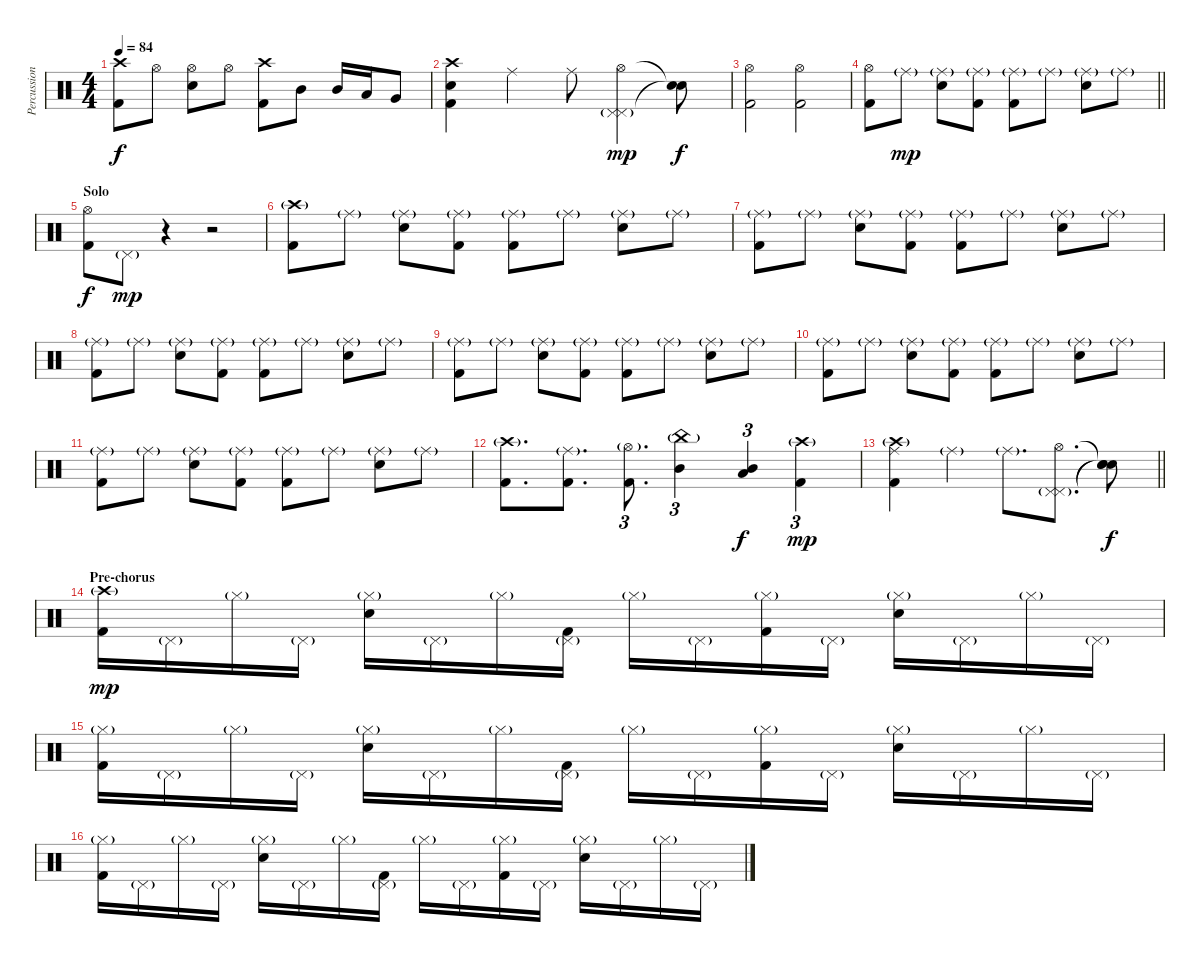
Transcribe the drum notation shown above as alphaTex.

\track ("Percussion" "Percussion") {instrument percussion}
\staff {score}
\articulation defaults
\ts (4 4)
\tempo 84
\clef neutral
\ks c
("Crash high (hit)" "Kick (hit) 2").8{dy f} "Hi-Hat (open)".8 ("Hi-Hat (open)" "Electric Snare (hit)").8 "Hi-Hat (open)".8 ("Crash high (hit)" "Kick (hit) 2").8 "Mid Tom (hit)".8 "Mid Tom (hit)".16 "Low Tom (hit)".16 "Very Low Tom (hit)".8 |
("Crash high (hit)" "Electric Snare (hit)" "Kick (hit) 2").4 "Ride (middle)".4 "Ride (middle)".8 ("Hi-Hat (open)" "Pedal Hi-Hat (hit)" "Pedal Hi-Hat (hit)"{g}).4{bd 480 dy mp} ("Snare (hit)"{t} "Snare (hit)"{t}).8{dy f} |
("Hi-Hat (open)" "Kick (hit) 2").2 ("Hi-Hat (open)" "Kick (hit) 2").2 |
\barLineRight lightlight
("Hi-Hat (open)" "Kick (hit) 2").8 "Ride (middle)"{g}.8{dy mp} ("Ride (middle)"{g} "Electric Snare (hit)").8 ("Ride (middle)"{g} "Kick (hit) 2").8 ("Ride (middle)"{g} "Kick (hit) 2").8 "Ride (middle)"{g}.8 ("Ride (middle)"{g} "Electric Snare (hit)").8 "Ride (middle)"{g}.8 |
\section ("" "Solo")
("Hi-Hat (open)" "Kick (hit) 2").8{dy f} "Pedal Hi-Hat (hit)"{g}.8{dy mp} r.4 r.2 |
("Crash high (hit)"{g} "Kick (hit) 2").8 "Ride (middle)"{g}.8 ("Ride (middle)"{g} "Electric Snare (hit)").8 ("Ride (middle)"{g} "Kick (hit) 2").8 ("Ride (middle)"{g} "Kick (hit) 2").8 "Ride (middle)"{g}.8 ("Ride (middle)"{g} "Electric Snare (hit)").8 "Ride (middle)"{g}.8 |
("Ride (middle)"{g} "Kick (hit) 2").8 "Ride (middle)"{g}.8 ("Ride (middle)"{g} "Electric Snare (hit)").8 ("Ride (middle)"{g} "Kick (hit) 2").8 ("Ride (middle)"{g} "Kick (hit) 2").8 "Ride (middle)"{g}.8 ("Ride (middle)"{g} "Electric Snare (hit)").8 "Ride (middle)"{g}.8 |
("Ride (middle)"{g} "Kick (hit) 2").8 "Ride (middle)"{g}.8 ("Ride (middle)"{g} "Electric Snare (hit)").8 ("Ride (middle)"{g} "Kick (hit) 2").8 ("Ride (middle)"{g} "Kick (hit) 2").8 "Ride (middle)"{g}.8 ("Ride (middle)"{g} "Electric Snare (hit)").8 "Ride (middle)"{g}.8 |
("Ride (middle)"{g} "Kick (hit) 2").8 "Ride (middle)"{g}.8 ("Ride (middle)"{g} "Electric Snare (hit)").8 ("Ride (middle)"{g} "Kick (hit) 2").8 ("Ride (middle)"{g} "Kick (hit) 2").8 "Ride (middle)"{g}.8 ("Ride (middle)"{g} "Electric Snare (hit)").8 "Ride (middle)"{g}.8 |
("Ride (middle)"{g} "Kick (hit) 2").8 "Ride (middle)"{g}.8 ("Ride (middle)"{g} "Electric Snare (hit)").8 ("Ride (middle)"{g} "Kick (hit) 2").8 ("Ride (middle)"{g} "Kick (hit) 2").8 "Ride (middle)"{g}.8 ("Ride (middle)"{g} "Electric Snare (hit)").8 "Ride (middle)"{g}.8 |
("Ride (middle)"{g} "Kick (hit) 2").8 "Ride (middle)"{g}.8 ("Ride (middle)"{g} "Electric Snare (hit)").8 ("Ride (middle)"{g} "Kick (hit) 2").8 ("Ride (middle)"{g} "Kick (hit) 2").8 "Ride (middle)"{g}.8 ("Ride (middle)"{g} "Electric Snare (hit)").8 "Ride (middle)"{g}.8 |
("Crash high (hit)"{g} "Kick (hit) 2").8{d} ("Ride (middle)"{g} "Kick (hit) 2").8{d} ("Hi-Hat (open)"{g} "Kick (hit) 2").8{d tu (3 2)} ("China (hit)"{g} "Mid Tom (hit)").4{tu (3 2)} ("Low Tom (hit)" "Mid Tom (hit)").4{tu (3 2) dy f} ("Crash high (hit)"{g} "Kick (hit) 2").4{tu (3 2) dy mp} |
\barLineRight lightlight
("Ride (middle)" "Crash high (hit)"{g} "Kick (hit) 2").4 "Ride (middle)"{g}.4 "Ride (middle)"{g}.8{d} ("Hi-Hat (open)" "Pedal Hi-Hat (hit)" "Pedal Hi-Hat (hit)"{g}).8{d bd 480} ("Snare (hit)"{t} "Snare (hit)"{t} "Snare (hit)"{t}).8{dy f} |
\section ("" "Pre-chorus")
("Crash high (hit)"{g} "Kick (hit) 2").16{dy mp} "Pedal Hi-Hat (hit)"{g}.16 "Hi-Hat (closed)"{g}.16 "Pedal Hi-Hat (hit)"{g}.16 ("Hi-Hat (closed)"{g} "Electric Snare (hit)").16 "Pedal Hi-Hat (hit)"{g}.16 "Hi-Hat (closed)"{g}.16 ("Pedal Hi-Hat (hit)"{g} "Kick (hit) 2").16 "Hi-Hat (closed)"{g}.16 "Pedal Hi-Hat (hit)"{g}.16 ("Hi-Hat (closed)"{g} "Kick (hit) 2").16 "Pedal Hi-Hat (hit)"{g}.16 ("Hi-Hat (closed)"{g} "Electric Snare (hit)").16 "Pedal Hi-Hat (hit)"{g}.16 "Hi-Hat (closed)"{g}.16 "Pedal Hi-Hat (hit)"{g}.16 |
("Hi-Hat (closed)"{g} "Kick (hit) 2").16 "Pedal Hi-Hat (hit)"{g}.16 "Hi-Hat (closed)"{g}.16 "Pedal Hi-Hat (hit)"{g}.16 ("Hi-Hat (closed)"{g} "Electric Snare (hit)").16 "Pedal Hi-Hat (hit)"{g}.16 "Hi-Hat (closed)"{g}.16 ("Pedal Hi-Hat (hit)"{g} "Kick (hit) 2").16 "Hi-Hat (closed)"{g}.16 "Pedal Hi-Hat (hit)"{g}.16 ("Hi-Hat (closed)"{g} "Kick (hit) 2").16 "Pedal Hi-Hat (hit)"{g}.16 ("Hi-Hat (closed)"{g} "Electric Snare (hit)").16 "Pedal Hi-Hat (hit)"{g}.16 "Hi-Hat (closed)"{g}.16 "Pedal Hi-Hat (hit)"{g}.16 |
("Hi-Hat (closed)"{g} "Kick (hit) 2").16 "Pedal Hi-Hat (hit)"{g}.16 "Hi-Hat (closed)"{g}.16 "Pedal Hi-Hat (hit)"{g}.16 ("Hi-Hat (closed)"{g} "Electric Snare (hit)").16 "Pedal Hi-Hat (hit)"{g}.16 "Hi-Hat (closed)"{g}.16 ("Pedal Hi-Hat (hit)"{g} "Kick (hit) 2").16 "Hi-Hat (closed)"{g}.16 "Pedal Hi-Hat (hit)"{g}.16 ("Hi-Hat (closed)"{g} "Kick (hit) 2").16 "Pedal Hi-Hat (hit)"{g}.16 ("Hi-Hat (closed)"{g} "Electric Snare (hit)").16 "Pedal Hi-Hat (hit)"{g}.16 "Hi-Hat (closed)"{g}.16 "Pedal Hi-Hat (hit)"{g}.16
